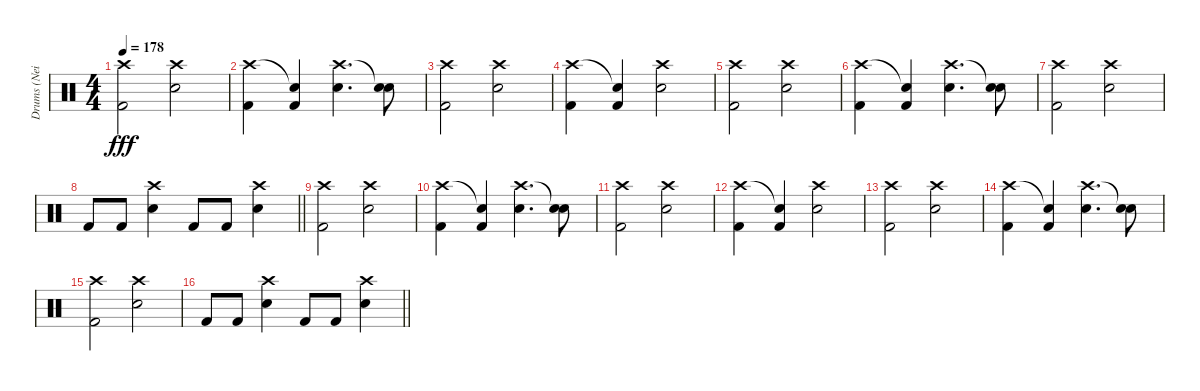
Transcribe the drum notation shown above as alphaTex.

\track ("Drums (Neil Sanderson)" "Drums (Nei") {instrument percussion}
\staff {score}
\articulation defaults
\ts (4 4)
\tempo 178
\clef neutral
\ks c
("Crash high (hit)" "Kick (hit) 2").2{dy fff} ("Crash high (hit)" "Snare (hit) 2").2 |
("Crash high (hit)" "Kick (hit) 2").4 ("Snare (hit)"{t} "Kick (hit) 2").4 ("Crash high (hit)" "Snare (hit) 2").4{d} ("Snare (hit)"{t} "Snare (hit) 2").8 |
("Crash high (hit)" "Kick (hit) 2").2 ("Crash high (hit)" "Snare (hit) 2").2 |
("Crash high (hit)" "Kick (hit) 2").4 ("Snare (hit)"{t} "Kick (hit) 2").4 ("Crash high (hit)" "Snare (hit) 2").2 |
("Crash high (hit)" "Kick (hit) 2").2 ("Crash high (hit)" "Snare (hit) 2").2 |
("Crash high (hit)" "Kick (hit) 2").4 ("Snare (hit)"{t} "Kick (hit) 2").4 ("Crash high (hit)" "Snare (hit) 2").4{d} ("Snare (hit)"{t} "Snare (hit) 2").8 |
("Crash high (hit)" "Kick (hit) 2").2 ("Crash high (hit)" "Snare (hit) 2").2 |
\barLineRight lightlight "Kick (hit) 2".8 "Kick (hit) 2".8
("Crash high (hit)" "Snare (hit) 2").4 "Kick (hit) 2".8 "Kick (hit) 2".8 ("Crash high (hit)" "Snare (hit) 2").4 |
("Crash high (hit)" "Kick (hit) 2").2 ("Crash high (hit)" "Snare (hit) 2").2 |
("Crash high (hit)" "Kick (hit) 2").4 ("Snare (hit)"{t} "Kick (hit) 2").4 ("Crash high (hit)" "Snare (hit) 2").4{d} ("Snare (hit)"{t} "Snare (hit) 2").8 |
("Crash high (hit)" "Kick (hit) 2").2 ("Crash high (hit)" "Snare (hit) 2").2 |
("Crash high (hit)" "Kick (hit) 2").4 ("Snare (hit)"{t} "Kick (hit) 2").4 ("Crash high (hit)" "Snare (hit) 2").2 |
("Crash high (hit)" "Kick (hit) 2").2 ("Crash high (hit)" "Snare (hit) 2").2 |
("Crash high (hit)" "Kick (hit) 2").4 ("Snare (hit)"{t} "Kick (hit) 2").4 ("Crash high (hit)" "Snare (hit) 2").4{d} ("Snare (hit)"{t} "Snare (hit) 2").8 |
("Crash high (hit)" "Kick (hit) 2").2 ("Crash high (hit)" "Snare (hit) 2").2 |
\barLineRight lightlight "Kick (hit) 2".8 "Kick (hit) 2".8
("Crash high (hit)" "Snare (hit) 2").4 "Kick (hit) 2".8 "Kick (hit) 2".8 ("Crash high (hit)" "Snare (hit) 2").4
